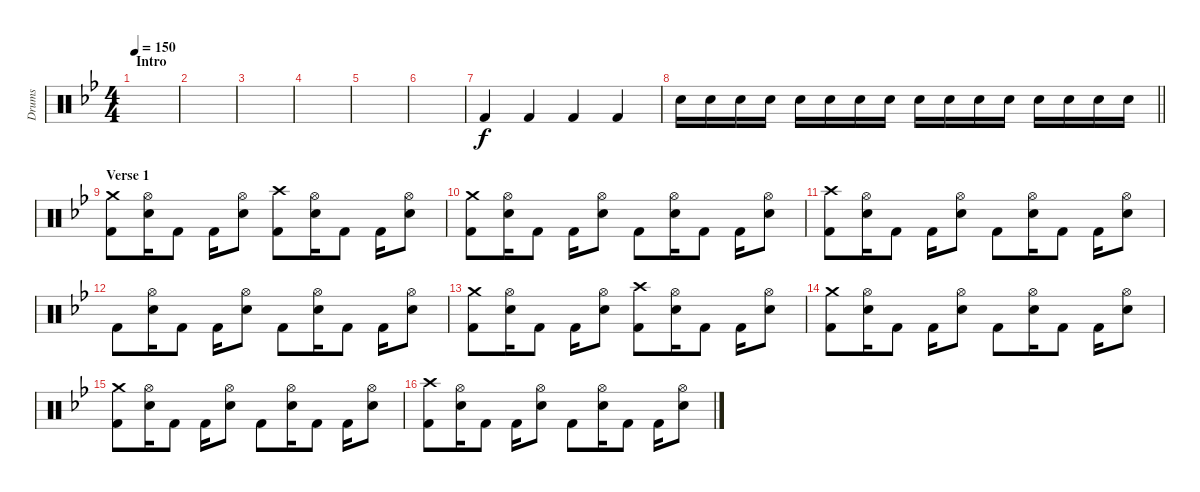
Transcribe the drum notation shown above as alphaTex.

\track ("Drums" "Drums") {instrument percussion}
\staff {score}
\articulation defaults
\ts (4 4)
\section ("" "Intro")
\tempo 150
\clef neutral
\ks bb
|
|
|
|
|
|
"Kick (hit) 2".4 "Kick (hit) 2".4 "Kick (hit) 2".4 "Kick (hit) 2".4 |
\barLineRight lightlight "Snare (hit) 2".16 "Snare (hit) 2".16 "Snare (hit) 2".16 "Snare (hit) 2".16 "Snare (hit) 2".16 "Snare (hit) 2".16 "Snare (hit) 2".16 "Snare (hit) 2".16 "Snare (hit) 2".16 "Snare (hit) 2".16 "Snare (hit) 2".16 "Snare (hit) 2".16 "Snare (hit) 2".16 "Snare (hit) 2".16 "Snare (hit) 2".16 "Snare (hit) 2".16
|
\section ("" "Verse 1")
("Crash medium (hit)" "Kick (hit) 2").8 ("Hi-Hat (open)" "Snare (hit) 2").16 "Kick (hit) 2".8 "Kick (hit) 2".16 ("Hi-Hat (open)" "Snare (hit) 2").8 ("Crash high (hit)" "Kick (hit) 2").8 ("Hi-Hat (open)" "Snare (hit) 2").16 "Kick (hit) 2".8 "Kick (hit) 2".16 ("Hi-Hat (open)" "Snare (hit) 2").8 |
("Crash medium (hit)" "Kick (hit) 2").8 ("Hi-Hat (open)" "Snare (hit) 2").16 "Kick (hit) 2".8 "Kick (hit) 2".16 ("Hi-Hat (open)" "Snare (hit) 2").8 "Kick (hit) 2".8 ("Hi-Hat (open)" "Snare (hit) 2").16 "Kick (hit) 2".8 "Kick (hit) 2".16 ("Hi-Hat (open)" "Snare (hit) 2").8 |
("Crash high (hit)" "Kick (hit) 2").8 ("Hi-Hat (open)" "Snare (hit) 2").16 "Kick (hit) 2".8 "Kick (hit) 2".16 ("Hi-Hat (open)" "Snare (hit) 2").8 "Kick (hit) 2".8 ("Hi-Hat (open)" "Snare (hit) 2").16 "Kick (hit) 2".8 "Kick (hit) 2".16 ("Hi-Hat (open)" "Snare (hit) 2").8 |
"Kick (hit) 2".8 ("Hi-Hat (open)" "Snare (hit) 2").16 "Kick (hit) 2".8 "Kick (hit) 2".16 ("Hi-Hat (open)" "Snare (hit) 2").8 "Kick (hit) 2".8 ("Hi-Hat (open)" "Snare (hit) 2").16 "Kick (hit) 2".8 "Kick (hit) 2".16 ("Hi-Hat (open)" "Snare (hit) 2").8 |
("Crash medium (hit)" "Kick (hit) 2").8 ("Hi-Hat (open)" "Snare (hit) 2").16 "Kick (hit) 2".8 "Kick (hit) 2".16 ("Hi-Hat (open)" "Snare (hit) 2").8 ("Crash high (hit)" "Kick (hit) 2").8 ("Hi-Hat (open)" "Snare (hit) 2").16 "Kick (hit) 2".8 "Kick (hit) 2".16 ("Hi-Hat (open)" "Snare (hit) 2").8 |
("Crash medium (hit)" "Kick (hit) 2").8 ("Hi-Hat (open)" "Snare (hit) 2").16 "Kick (hit) 2".8 "Kick (hit) 2".16 ("Hi-Hat (open)" "Snare (hit) 2").8 "Kick (hit) 2".8 ("Hi-Hat (open)" "Snare (hit) 2").16 "Kick (hit) 2".8 "Kick (hit) 2".16 ("Hi-Hat (open)" "Snare (hit) 2").8 |
("Crash medium (hit)" "Kick (hit) 2").8 ("Hi-Hat (open)" "Snare (hit) 2").16 "Kick (hit) 2".8 "Kick (hit) 2".16 ("Hi-Hat (open)" "Snare (hit) 2").8 "Kick (hit) 2".8 ("Hi-Hat (open)" "Snare (hit) 2").16 "Kick (hit) 2".8 "Kick (hit) 2".16 ("Hi-Hat (open)" "Snare (hit) 2").8 |
("Crash high (hit)" "Kick (hit) 2").8 ("Hi-Hat (open)" "Snare (hit) 2").16 "Kick (hit) 2".8 "Kick (hit) 2".16 ("Hi-Hat (open)" "Snare (hit) 2").8 "Kick (hit) 2".8 ("Hi-Hat (open)" "Snare (hit) 2").16 "Kick (hit) 2".8 "Kick (hit) 2".16 ("Hi-Hat (open)" "Snare (hit) 2").8
